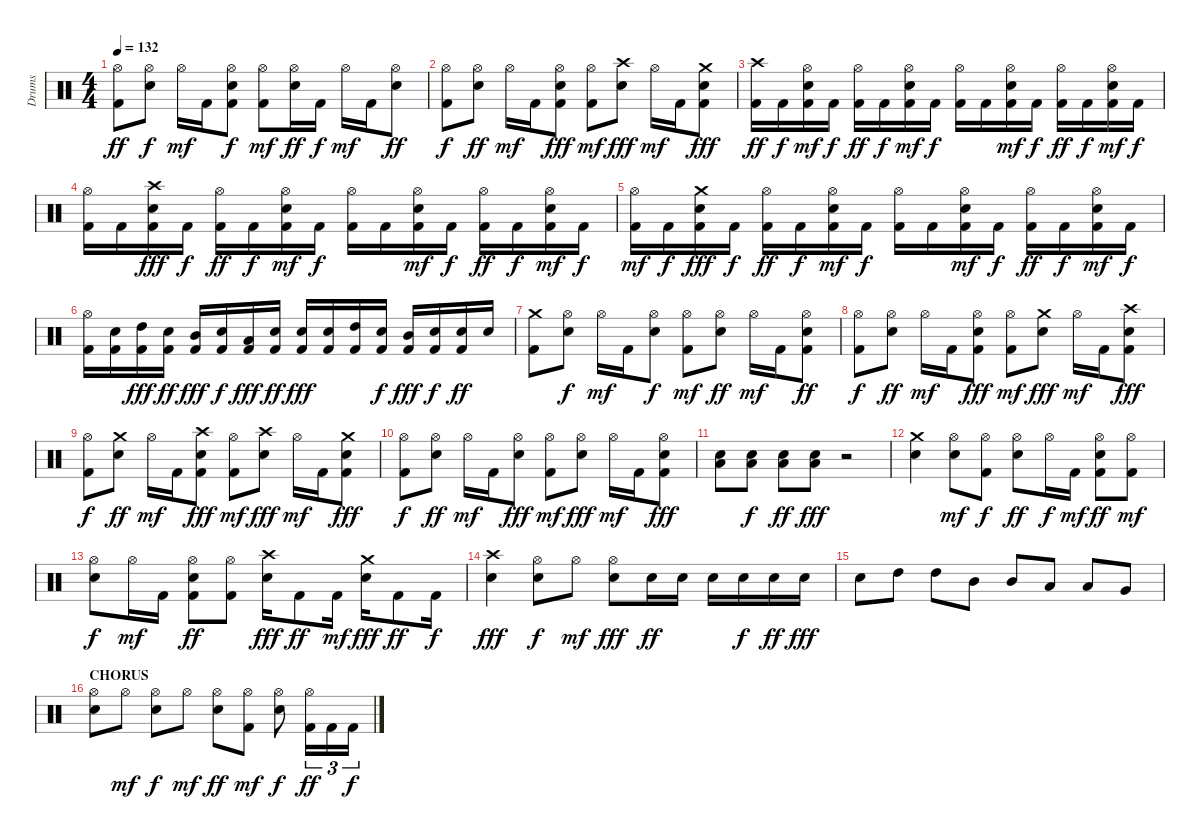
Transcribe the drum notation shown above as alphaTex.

\track ("Drums" "Drums") {instrument percussion}
\staff {score}
\articulation defaults
\ts (4 4)
\tempo 132
\clef neutral
\ks c
("Hi-Hat (open)" "Kick (hit) 2").8{dy ff} ("Hi-Hat (open)" "Electric Snare (hit)").8{dy f} "Hi-Hat (open)".16{dy mf} "Kick (hit) 2".16 ("Hi-Hat (open)" "Electric Snare (hit)" "Kick (hit) 2").8{dy f} ("Hi-Hat (open)" "Kick (hit) 2").8{dy mf} ("Hi-Hat (open)" "Electric Snare (hit)").16{dy ff} "Kick (hit) 2".16{dy f} "Hi-Hat (open)".16{dy mf} "Kick (hit) 2".16 ("Hi-Hat (open)" "Electric Snare (hit)").8{dy ff} |
("Hi-Hat (open)" "Kick (hit) 2").8{dy f} ("Hi-Hat (open)" "Electric Snare (hit)").8{dy ff} "Hi-Hat (open)".16{dy mf} "Kick (hit) 2".16 ("Hi-Hat (open)" "Electric Snare (hit)" "Kick (hit) 2").8{dy fff} ("Hi-Hat (open)" "Kick (hit) 2").8{dy mf} ("Crash high (hit)" "Electric Snare (hit)").8{dy fff} "Hi-Hat (open)".16{dy mf} "Kick (hit) 2".16 ("Crash medium (hit)" "Electric Snare (hit)" "Kick (hit) 2").8{dy fff} |
("Crash high (hit)" "Kick (hit) 2").16{dy ff} "Kick (hit) 2".16{dy f} ("Hi-Hat (open)" "Electric Snare (hit)" "Kick (hit) 2").16{dy mf} "Kick (hit) 2".16{dy f} ("Hi-Hat (open)" "Kick (hit) 2").16{dy ff} "Kick (hit) 2".16{dy f} ("Hi-Hat (open)" "Electric Snare (hit)" "Kick (hit) 2").16{dy mf} "Kick (hit) 2".16{dy f} ("Hi-Hat (open)" "Kick (hit) 2").16 "Kick (hit) 2".16 ("Hi-Hat (open)" "Electric Snare (hit)" "Kick (hit) 2").16{dy mf} "Kick (hit) 2".16{dy f} ("Hi-Hat (open)" "Kick (hit) 2").16{dy ff} "Kick (hit) 2".16{dy f} ("Hi-Hat (open)" "Electric Snare (hit)" "Kick (hit) 2").16{dy mf} "Kick (hit) 2".16{dy f} |
("Hi-Hat (open)" "Kick (hit) 2").16 "Kick (hit) 2".16 ("Crash high (hit)" "Electric Snare (hit)" "Kick (hit) 2").16{dy fff} "Kick (hit) 2".16{dy f} ("Hi-Hat (open)" "Kick (hit) 2").16{dy ff} "Kick (hit) 2".16{dy f} ("Hi-Hat (open)" "Electric Snare (hit)" "Kick (hit) 2").16{dy mf} "Kick (hit) 2".16{dy f} ("Hi-Hat (open)" "Kick (hit) 2").16 "Kick (hit) 2".16 ("Hi-Hat (open)" "Electric Snare (hit)" "Kick (hit) 2").16{dy mf} "Kick (hit) 2".16{dy f} ("Hi-Hat (open)" "Kick (hit) 2").16{dy ff} "Kick (hit) 2".16{dy f} ("Hi-Hat (open)" "Electric Snare (hit)" "Kick (hit) 2").16{dy mf} "Kick (hit) 2".16{dy f} |
("Hi-Hat (open)" "Kick (hit) 2").16{dy mf} "Kick (hit) 2".16{dy f} ("Crash medium (hit)" "Electric Snare (hit)" "Kick (hit) 2").16{dy fff} "Kick (hit) 2".16{dy f} ("Hi-Hat (open)" "Kick (hit) 2").16{dy ff} "Kick (hit) 2".16{dy f} ("Hi-Hat (open)" "Electric Snare (hit)" "Kick (hit) 2").16{dy mf} "Kick (hit) 2".16{dy f} ("Hi-Hat (open)" "Kick (hit) 2").16 "Kick (hit) 2".16 ("Hi-Hat (open)" "Electric Snare (hit)" "Kick (hit) 2").16{dy mf} "Kick (hit) 2".16{dy f} ("Hi-Hat (open)" "Kick (hit) 2").16{dy ff} "Kick (hit) 2".16{dy f} ("Hi-Hat (open)" "Electric Snare (hit)" "Kick (hit) 2").16{dy mf} "Kick (hit) 2".16{dy f} |
("Hi-Hat (open)" "Kick (hit) 2").16 ("Electric Snare (hit)" "Kick (hit) 2").16 ("High Tom (hit)" "Kick (hit) 2").16{dy fff} ("Electric Snare (hit)" "Kick (hit) 2").16{dy ff} ("Mid Tom (hit)" "Kick (hit) 2").16{dy fff} ("Electric Snare (hit)" "Kick (hit) 2").16{dy f} ("Low Tom (hit)" "Kick (hit) 2").16{dy fff} ("Electric Snare (hit)" "Kick (hit) 2").16{dy ff} ("Electric Snare (hit)" "Kick (hit) 2").16{dy fff} ("Electric Snare (hit)" "Kick (hit) 2").16 ("High Tom (hit)" "Kick (hit) 2").16 ("Electric Snare (hit)" "Kick (hit) 2").16{dy f} ("Mid Tom (hit)" "Kick (hit) 2").16{dy fff} ("Electric Snare (hit)" "Kick (hit) 2").16{dy f} ("Electric Snare (hit)" "Kick (hit) 2").16{dy ff} "Electric Snare (hit)".16 |
("Crash medium (hit)" "Kick (hit) 2").8 ("Hi-Hat (open)" "Electric Snare (hit)").8{dy f} "Hi-Hat (open)".16{dy mf} "Kick (hit) 2".16 ("Hi-Hat (open)" "Electric Snare (hit)").8{dy f} ("Hi-Hat (open)" "Kick (hit) 2").8{dy mf} ("Hi-Hat (open)" "Electric Snare (hit)").8{dy ff} "Hi-Hat (open)".16{dy mf} "Kick (hit) 2".16 ("Hi-Hat (open)" "Electric Snare (hit)" "Kick (hit) 2").8{dy ff} |
("Hi-Hat (open)" "Kick (hit) 2").8{dy f} ("Hi-Hat (open)" "Electric Snare (hit)").8{dy ff} "Hi-Hat (open)".16{dy mf} "Kick (hit) 2".16 ("Hi-Hat (open)" "Electric Snare (hit)" "Kick (hit) 2").8{dy fff} ("Hi-Hat (open)" "Kick (hit) 2").8{dy mf} ("Crash medium (hit)" "Electric Snare (hit)").8{dy fff} "Hi-Hat (open)".16{dy mf} "Kick (hit) 2".16 ("Crash high (hit)" "Electric Snare (hit)" "Kick (hit) 2").8{dy fff} |
("Hi-Hat (open)" "Kick (hit) 2").8{dy f} ("Crash medium (hit)" "Electric Snare (hit)").8{dy ff} "Hi-Hat (open)".16{dy mf} "Kick (hit) 2".16 ("Crash high (hit)" "Electric Snare (hit)" "Kick (hit) 2").8{dy fff} ("Hi-Hat (open)" "Kick (hit) 2").8{dy mf} ("Crash high (hit)" "Electric Snare (hit)").8{dy fff} "Hi-Hat (open)".16{dy mf} "Kick (hit) 2".16 ("Crash medium (hit)" "Electric Snare (hit)" "Kick (hit) 2").8{dy fff} |
("Hi-Hat (open)" "Kick (hit) 2").8{dy f} ("Hi-Hat (open)" "Electric Snare (hit)").8{dy ff} "Hi-Hat (open)".16{dy mf} "Kick (hit) 2".16 ("Hi-Hat (open)" "Electric Snare (hit)").8{dy fff} ("Hi-Hat (open)" "Kick (hit) 2").8{dy mf} ("Hi-Hat (open)" "Electric Snare (hit)").8{dy fff} "Hi-Hat (open)".16{dy mf} "Kick (hit) 2".16 ("Hi-Hat (open)" "Electric Snare (hit)" "Kick (hit) 2").8{dy fff} |
("Electric Snare (hit)" "Low Floor Tom (hit)").8 ("Electric Snare (hit)" "Low Floor Tom (hit)").8{dy f} ("Electric Snare (hit)" "Low Floor Tom (hit)").8{dy ff} ("Electric Snare (hit)" "Low Floor Tom (hit)").8{dy fff} r.2 |
("Crash medium (hit)" "Electric Snare (hit)").4 ("Hi-Hat (open)" "Electric Snare (hit)").8{dy mf} ("Hi-Hat (open)" "Kick (hit) 2").8{dy f} ("Hi-Hat (open)" "Electric Snare (hit)").8{dy ff} "Hi-Hat (open)".16{dy f} "Kick (hit) 2".16{dy mf} ("Hi-Hat (open)" "Electric Snare (hit)" "Kick (hit) 2").8{dy ff} ("Hi-Hat (open)" "Kick (hit) 2").8{dy mf} |
("Hi-Hat (open)" "Electric Snare (hit)").8{dy f} "Hi-Hat (open)".16{dy mf} "Kick (hit) 2".16 ("Hi-Hat (open)" "Electric Snare (hit)" "Kick (hit) 2").8{dy ff} ("Hi-Hat (open)" "Kick (hit) 2").8 ("Crash high (hit)" "Electric Snare (hit)").16{dy fff} "Kick (hit) 2".8{dy ff} "Kick (hit) 2".16{dy mf} ("Crash medium (hit)" "Electric Snare (hit)").16{dy fff} "Kick (hit) 2".8{dy ff} "Kick (hit) 2".16{dy f} |
("Crash high (hit)" "Electric Snare (hit)").4{dy fff} ("Hi-Hat (open)" "Electric Snare (hit)").8{dy f} "Hi-Hat (open)".8{dy mf} ("Hi-Hat (open)" "Electric Snare (hit)").8{dy fff} "Electric Snare (hit)".16{dy ff} "Electric Snare (hit)".16 "Electric Snare (hit)".16 "Electric Snare (hit)".16{dy f} "Electric Snare (hit)".16{dy ff} "Electric Snare (hit)".16{dy fff} |
"Electric Snare (hit)".8 "High Tom (hit)".8 "High Tom (hit)".8 "Mid Tom (hit)".8 "Mid Tom (hit)".8 "Low Tom (hit)".8 "Low Tom (hit)".8 "Very Low Tom (hit)".8 |
\section ("" "CHORUS")
("Hi-Hat (open)" "Electric Snare (hit)").8 "Hi-Hat (open)".8{dy mf} ("Hi-Hat (open)" "Electric Snare (hit)").8{dy f} "Hi-Hat (open)".8{dy mf} ("Hi-Hat (open)" "Electric Snare (hit)").8{dy ff} ("Hi-Hat (open)" "Kick (hit) 2").8{dy mf} ("Hi-Hat (open)" "Electric Snare (hit)").8{dy f} ("Hi-Hat (open)" "Kick (hit) 2").16{tu (3 2) dy ff} "Kick (hit) 2".16{tu (3 2)} "Kick (hit) 2".16{tu (3 2) dy f}
